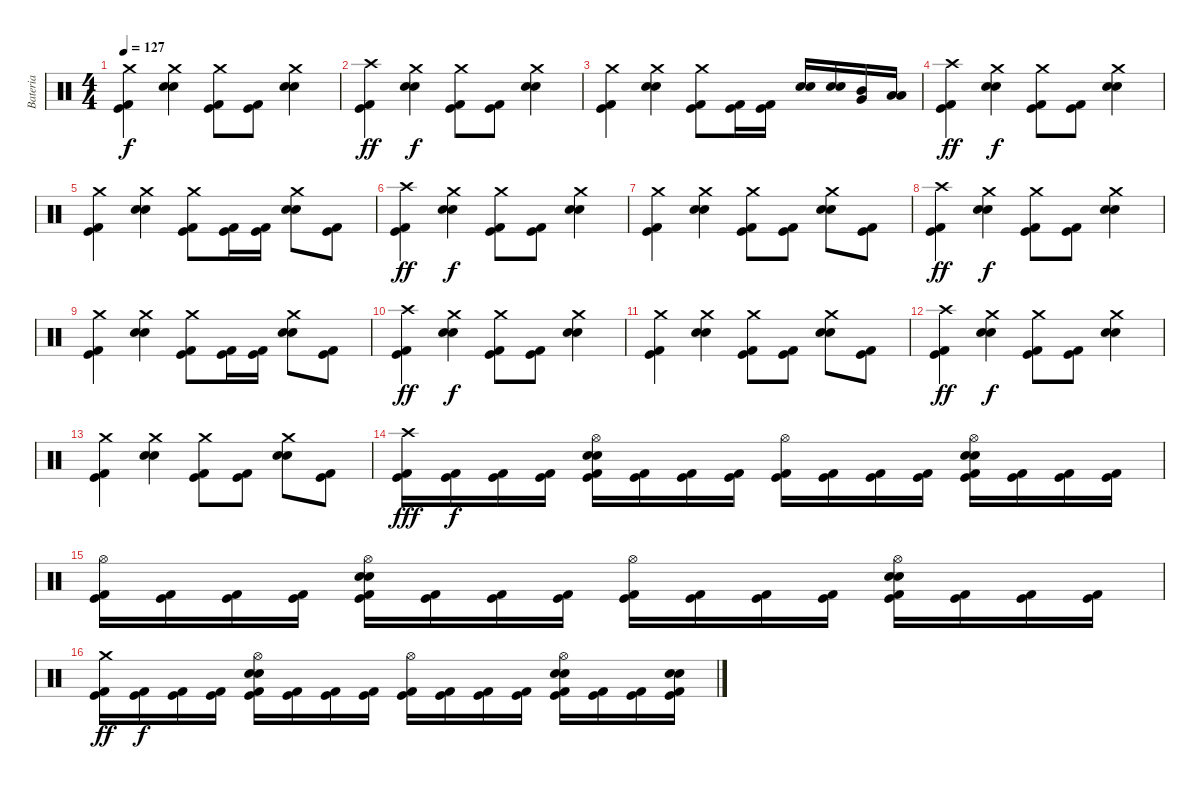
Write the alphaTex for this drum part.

\track ("Bateria" "Bateria") {instrument percussion}
\staff {score}
\articulation defaults
\ts (4 4)
\tempo 127
\clef neutral
\ks c
("Crash medium (hit)" "Kick (hit) 2" "Kick (hit)").4{dy f} ("Crash medium (hit)" "Electric Snare (hit)" "Snare (hit) 2").4 ("Crash medium (hit)" "Kick (hit) 2" "Kick (hit)").8 ("Kick (hit) 2" "Kick (hit)").8 ("Crash medium (hit)" "Electric Snare (hit)" "Snare (hit) 2").4 |
("Crash high (hit)" "Kick (hit) 2" "Kick (hit)").4{dy ff} ("Crash medium (hit)" "Electric Snare (hit)" "Snare (hit) 2").4{dy f} ("Crash medium (hit)" "Kick (hit) 2" "Kick (hit)").8 ("Kick (hit) 2" "Kick (hit)").8 ("Crash medium (hit)" "Electric Snare (hit)" "Snare (hit) 2").4 |
("Crash medium (hit)" "Kick (hit) 2" "Kick (hit)").4 ("Crash medium (hit)" "Electric Snare (hit)" "Snare (hit) 2").4 ("Crash medium (hit)" "Kick (hit) 2" "Kick (hit)").8 ("Kick (hit) 2" "Kick (hit)").16 ("Kick (hit) 2" "Kick (hit)").16 ("Electric Snare (hit)" "Snare (hit) 2").16 ("Electric Snare (hit)" "Snare (hit) 2").16 ("Mid Tom (hit)" "Very Low Tom (hit)").16 ("Low Tom (hit)" "Low Floor Tom (hit)").16 |
("Crash high (hit)" "Kick (hit) 2" "Kick (hit)").4{dy ff} ("Crash medium (hit)" "Electric Snare (hit)" "Snare (hit) 2").4{dy f} ("Crash medium (hit)" "Kick (hit) 2" "Kick (hit)").8 ("Kick (hit) 2" "Kick (hit)").8 ("Crash medium (hit)" "Electric Snare (hit)" "Snare (hit) 2").4 |
("Crash medium (hit)" "Kick (hit) 2" "Kick (hit)").4 ("Crash medium (hit)" "Electric Snare (hit)" "Snare (hit) 2").4 ("Crash medium (hit)" "Kick (hit) 2" "Kick (hit)").8 ("Kick (hit) 2" "Kick (hit)").16 ("Kick (hit) 2" "Kick (hit)").16 ("Crash medium (hit)" "Electric Snare (hit)" "Snare (hit) 2").8 ("Kick (hit) 2" "Kick (hit)").8 |
("Crash high (hit)" "Kick (hit) 2" "Kick (hit)").4{dy ff} ("Crash medium (hit)" "Electric Snare (hit)" "Snare (hit) 2").4{dy f} ("Crash medium (hit)" "Kick (hit) 2" "Kick (hit)").8 ("Kick (hit) 2" "Kick (hit)").8 ("Crash medium (hit)" "Electric Snare (hit)" "Snare (hit) 2").4 |
("Crash medium (hit)" "Kick (hit) 2" "Kick (hit)").4 ("Crash medium (hit)" "Electric Snare (hit)" "Snare (hit) 2").4 ("Crash medium (hit)" "Kick (hit) 2" "Kick (hit)").8 ("Kick (hit) 2" "Kick (hit)").8 ("Crash medium (hit)" "Electric Snare (hit)" "Snare (hit) 2").8 ("Kick (hit) 2" "Kick (hit)").8 |
("Crash high (hit)" "Kick (hit) 2" "Kick (hit)").4{dy ff} ("Crash medium (hit)" "Electric Snare (hit)" "Snare (hit) 2").4{dy f} ("Crash medium (hit)" "Kick (hit) 2" "Kick (hit)").8 ("Kick (hit) 2" "Kick (hit)").8 ("Crash medium (hit)" "Electric Snare (hit)" "Snare (hit) 2").4 |
("Crash medium (hit)" "Kick (hit) 2" "Kick (hit)").4 ("Crash medium (hit)" "Electric Snare (hit)" "Snare (hit) 2").4 ("Crash medium (hit)" "Kick (hit) 2" "Kick (hit)").8 ("Kick (hit) 2" "Kick (hit)").16 ("Kick (hit) 2" "Kick (hit)").16 ("Crash medium (hit)" "Electric Snare (hit)" "Snare (hit) 2").8 ("Kick (hit) 2" "Kick (hit)").8 |
("Crash high (hit)" "Kick (hit) 2" "Kick (hit)").4{dy ff} ("Crash medium (hit)" "Electric Snare (hit)" "Snare (hit) 2").4{dy f} ("Crash medium (hit)" "Kick (hit) 2" "Kick (hit)").8 ("Kick (hit) 2" "Kick (hit)").8 ("Crash medium (hit)" "Electric Snare (hit)" "Snare (hit) 2").4 |
("Crash medium (hit)" "Kick (hit) 2" "Kick (hit)").4 ("Crash medium (hit)" "Electric Snare (hit)" "Snare (hit) 2").4 ("Crash medium (hit)" "Kick (hit) 2" "Kick (hit)").8 ("Kick (hit) 2" "Kick (hit)").8 ("Crash medium (hit)" "Electric Snare (hit)" "Snare (hit) 2").8 ("Kick (hit) 2" "Kick (hit)").8 |
("Crash high (hit)" "Kick (hit) 2" "Kick (hit)").4{dy ff} ("Crash medium (hit)" "Electric Snare (hit)" "Snare (hit) 2").4{dy f} ("Crash medium (hit)" "Kick (hit) 2" "Kick (hit)").8 ("Kick (hit) 2" "Kick (hit)").8 ("Crash medium (hit)" "Electric Snare (hit)" "Snare (hit) 2").4 |
("Crash medium (hit)" "Kick (hit) 2" "Kick (hit)").4 ("Crash medium (hit)" "Electric Snare (hit)" "Snare (hit) 2").4 ("Crash medium (hit)" "Kick (hit) 2" "Kick (hit)").8 ("Kick (hit) 2" "Kick (hit)").8 ("Crash medium (hit)" "Electric Snare (hit)" "Snare (hit) 2").8 ("Kick (hit) 2" "Kick (hit)").8 |
("Crash high (hit)" "Kick (hit) 2" "Kick (hit)").16{dy fff} ("Kick (hit) 2" "Kick (hit)").16{dy f} ("Kick (hit) 2" "Kick (hit)").16 ("Kick (hit) 2" "Kick (hit)").16 ("Hi-Hat (open)" "Electric Snare (hit)" "Snare (hit) 2" "Kick (hit) 2" "Kick (hit)").16 ("Kick (hit) 2" "Kick (hit)").16 ("Kick (hit) 2" "Kick (hit)").16 ("Kick (hit) 2" "Kick (hit)").16 ("Hi-Hat (open)" "Kick (hit) 2" "Kick (hit)").16 ("Kick (hit) 2" "Kick (hit)").16 ("Kick (hit) 2" "Kick (hit)").16 ("Kick (hit) 2" "Kick (hit)").16 ("Hi-Hat (open)" "Electric Snare (hit)" "Snare (hit) 2" "Kick (hit) 2" "Kick (hit)").16 ("Kick (hit) 2" "Kick (hit)").16 ("Kick (hit) 2" "Kick (hit)").16 ("Kick (hit) 2" "Kick (hit)").16 |
("Hi-Hat (open)" "Kick (hit) 2" "Kick (hit)").16 ("Kick (hit) 2" "Kick (hit)").16 ("Kick (hit) 2" "Kick (hit)").16 ("Kick (hit) 2" "Kick (hit)").16 ("Hi-Hat (open)" "Electric Snare (hit)" "Snare (hit) 2" "Kick (hit) 2" "Kick (hit)").16 ("Kick (hit) 2" "Kick (hit)").16 ("Kick (hit) 2" "Kick (hit)").16 ("Kick (hit) 2" "Kick (hit)").16 ("Hi-Hat (open)" "Kick (hit) 2" "Kick (hit)").16 ("Kick (hit) 2" "Kick (hit)").16 ("Kick (hit) 2" "Kick (hit)").16 ("Kick (hit) 2" "Kick (hit)").16 ("Hi-Hat (open)" "Electric Snare (hit)" "Snare (hit) 2" "Kick (hit) 2" "Kick (hit)").16 ("Kick (hit) 2" "Kick (hit)").16 ("Kick (hit) 2" "Kick (hit)").16 ("Kick (hit) 2" "Kick (hit)").16 |
("Crash medium (hit)" "Kick (hit) 2" "Kick (hit)").16{dy ff} ("Kick (hit) 2" "Kick (hit)").16{dy f} ("Kick (hit) 2" "Kick (hit)").16 ("Kick (hit) 2" "Kick (hit)").16 ("Hi-Hat (open)" "Electric Snare (hit)" "Snare (hit) 2" "Kick (hit) 2" "Kick (hit)").16 ("Kick (hit) 2" "Kick (hit)").16 ("Kick (hit) 2" "Kick (hit)").16 ("Kick (hit) 2" "Kick (hit)").16 ("Hi-Hat (open)" "Kick (hit) 2" "Kick (hit)").16 ("Kick (hit) 2" "Kick (hit)").16 ("Kick (hit) 2" "Kick (hit)").16 ("Kick (hit) 2" "Kick (hit)").16 ("Hi-Hat (open)" "Electric Snare (hit)" "Snare (hit) 2" "Kick (hit) 2" "Kick (hit)").16 ("Kick (hit) 2" "Kick (hit)").16 ("Kick (hit) 2" "Kick (hit)").16 ("Electric Snare (hit)" "Snare (hit) 2" "Kick (hit) 2" "Kick (hit)").16
